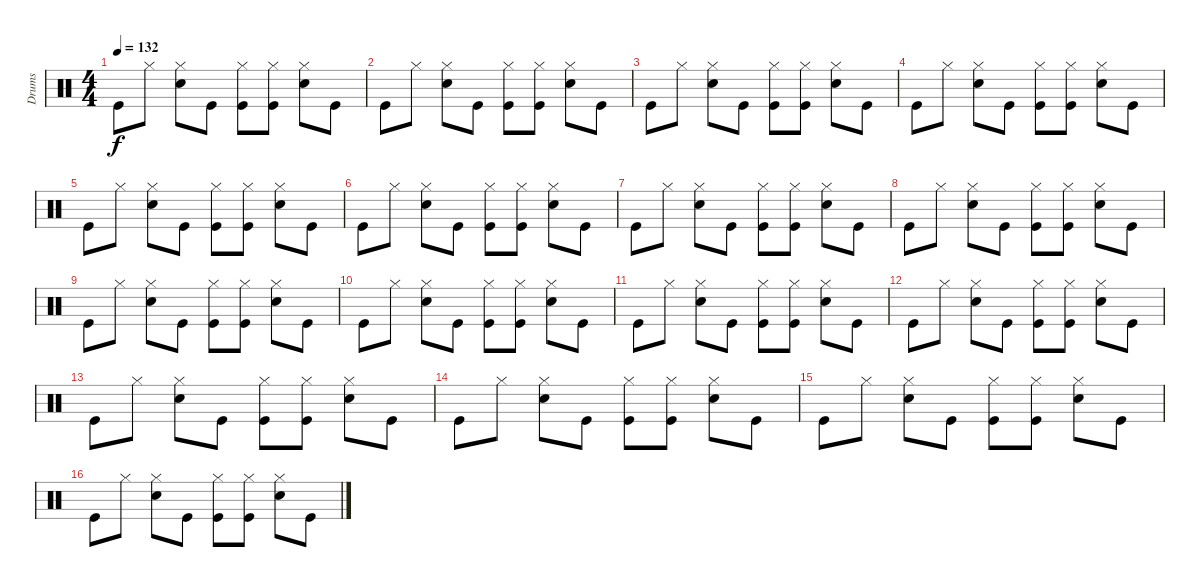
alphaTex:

\track ("Drums" "Drums") {instrument percussion}
\staff {score}
\articulation defaults
\ts (4 4)
\tempo 132
\clef neutral
\ks c "Kick (hit)".8{dy f} "Hi-Hat (closed)".8
("Hi-Hat (closed)" "Snare (hit) 2").8 "Kick (hit)".8 ("Hi-Hat (closed)" "Kick (hit)").8 ("Hi-Hat (closed)" "Kick (hit)").8 ("Hi-Hat (closed)" "Snare (hit) 2").8 "Kick (hit)".8 |
"Kick (hit)".8 "Hi-Hat (closed)".8 ("Hi-Hat (closed)" "Snare (hit) 2").8 "Kick (hit)".8 ("Hi-Hat (closed)" "Kick (hit)").8 ("Hi-Hat (closed)" "Kick (hit)").8 ("Hi-Hat (closed)" "Snare (hit) 2").8 "Kick (hit)".8 |
"Kick (hit)".8 "Hi-Hat (closed)".8 ("Hi-Hat (closed)" "Snare (hit) 2").8 "Kick (hit)".8 ("Hi-Hat (closed)" "Kick (hit)").8 ("Hi-Hat (closed)" "Kick (hit)").8 ("Hi-Hat (closed)" "Snare (hit) 2").8 "Kick (hit)".8 |
"Kick (hit)".8 "Hi-Hat (closed)".8 ("Hi-Hat (closed)" "Snare (hit) 2").8 "Kick (hit)".8 ("Hi-Hat (closed)" "Kick (hit)").8 ("Hi-Hat (closed)" "Kick (hit)").8 ("Hi-Hat (closed)" "Snare (hit) 2").8 "Kick (hit)".8 |
"Kick (hit)".8 "Hi-Hat (closed)".8 ("Hi-Hat (closed)" "Snare (hit) 2").8 "Kick (hit)".8 ("Hi-Hat (closed)" "Kick (hit)").8 ("Hi-Hat (closed)" "Kick (hit)").8 ("Hi-Hat (closed)" "Snare (hit) 2").8 "Kick (hit)".8 |
"Kick (hit)".8 "Hi-Hat (closed)".8 ("Hi-Hat (closed)" "Snare (hit) 2").8 "Kick (hit)".8 ("Hi-Hat (closed)" "Kick (hit)").8 ("Hi-Hat (closed)" "Kick (hit)").8 ("Hi-Hat (closed)" "Snare (hit) 2").8 "Kick (hit)".8 |
"Kick (hit)".8 "Hi-Hat (closed)".8 ("Hi-Hat (closed)" "Snare (hit) 2").8 "Kick (hit)".8 ("Hi-Hat (closed)" "Kick (hit)").8 ("Hi-Hat (closed)" "Kick (hit)").8 ("Hi-Hat (closed)" "Snare (hit) 2").8 "Kick (hit)".8 |
"Kick (hit)".8 "Hi-Hat (closed)".8 ("Hi-Hat (closed)" "Snare (hit) 2").8 "Kick (hit)".8 ("Hi-Hat (closed)" "Kick (hit)").8 ("Hi-Hat (closed)" "Kick (hit)").8 ("Hi-Hat (closed)" "Snare (hit) 2").8 "Kick (hit)".8 |
"Kick (hit)".8 "Hi-Hat (closed)".8 ("Hi-Hat (closed)" "Snare (hit) 2").8 "Kick (hit)".8 ("Hi-Hat (closed)" "Kick (hit)").8 ("Hi-Hat (closed)" "Kick (hit)").8 ("Hi-Hat (closed)" "Snare (hit) 2").8 "Kick (hit)".8 |
"Kick (hit)".8 "Hi-Hat (closed)".8 ("Hi-Hat (closed)" "Snare (hit) 2").8 "Kick (hit)".8 ("Hi-Hat (closed)" "Kick (hit)").8 ("Hi-Hat (closed)" "Kick (hit)").8 ("Hi-Hat (closed)" "Snare (hit) 2").8 "Kick (hit)".8 |
"Kick (hit)".8 "Hi-Hat (closed)".8 ("Hi-Hat (closed)" "Snare (hit) 2").8 "Kick (hit)".8 ("Hi-Hat (closed)" "Kick (hit)").8 ("Hi-Hat (closed)" "Kick (hit)").8 ("Hi-Hat (closed)" "Snare (hit) 2").8 "Kick (hit)".8 |
"Kick (hit)".8 "Hi-Hat (closed)".8 ("Hi-Hat (closed)" "Snare (hit) 2").8 "Kick (hit)".8 ("Hi-Hat (closed)" "Kick (hit)").8 ("Hi-Hat (closed)" "Kick (hit)").8 ("Hi-Hat (closed)" "Snare (hit) 2").8 "Kick (hit)".8 |
"Kick (hit)".8 "Hi-Hat (closed)".8 ("Hi-Hat (closed)" "Snare (hit) 2").8 "Kick (hit)".8 ("Hi-Hat (closed)" "Kick (hit)").8 ("Hi-Hat (closed)" "Kick (hit)").8 ("Hi-Hat (closed)" "Snare (hit) 2").8 "Kick (hit)".8 |
"Kick (hit)".8 "Hi-Hat (closed)".8 ("Hi-Hat (closed)" "Snare (hit) 2").8 "Kick (hit)".8 ("Hi-Hat (closed)" "Kick (hit)").8 ("Hi-Hat (closed)" "Kick (hit)").8 ("Hi-Hat (closed)" "Snare (hit) 2").8 "Kick (hit)".8 |
"Kick (hit)".8 "Hi-Hat (closed)".8 ("Hi-Hat (closed)" "Snare (hit) 2").8 "Kick (hit)".8 ("Hi-Hat (closed)" "Kick (hit)").8 ("Hi-Hat (closed)" "Kick (hit)").8 ("Hi-Hat (closed)" "Snare (hit) 2").8 "Kick (hit)".8 |
"Kick (hit)".8 "Hi-Hat (closed)".8 ("Hi-Hat (closed)" "Snare (hit) 2").8 "Kick (hit)".8 ("Hi-Hat (closed)" "Kick (hit)").8 ("Hi-Hat (closed)" "Kick (hit)").8 ("Hi-Hat (closed)" "Snare (hit) 2").8 "Kick (hit)".8
